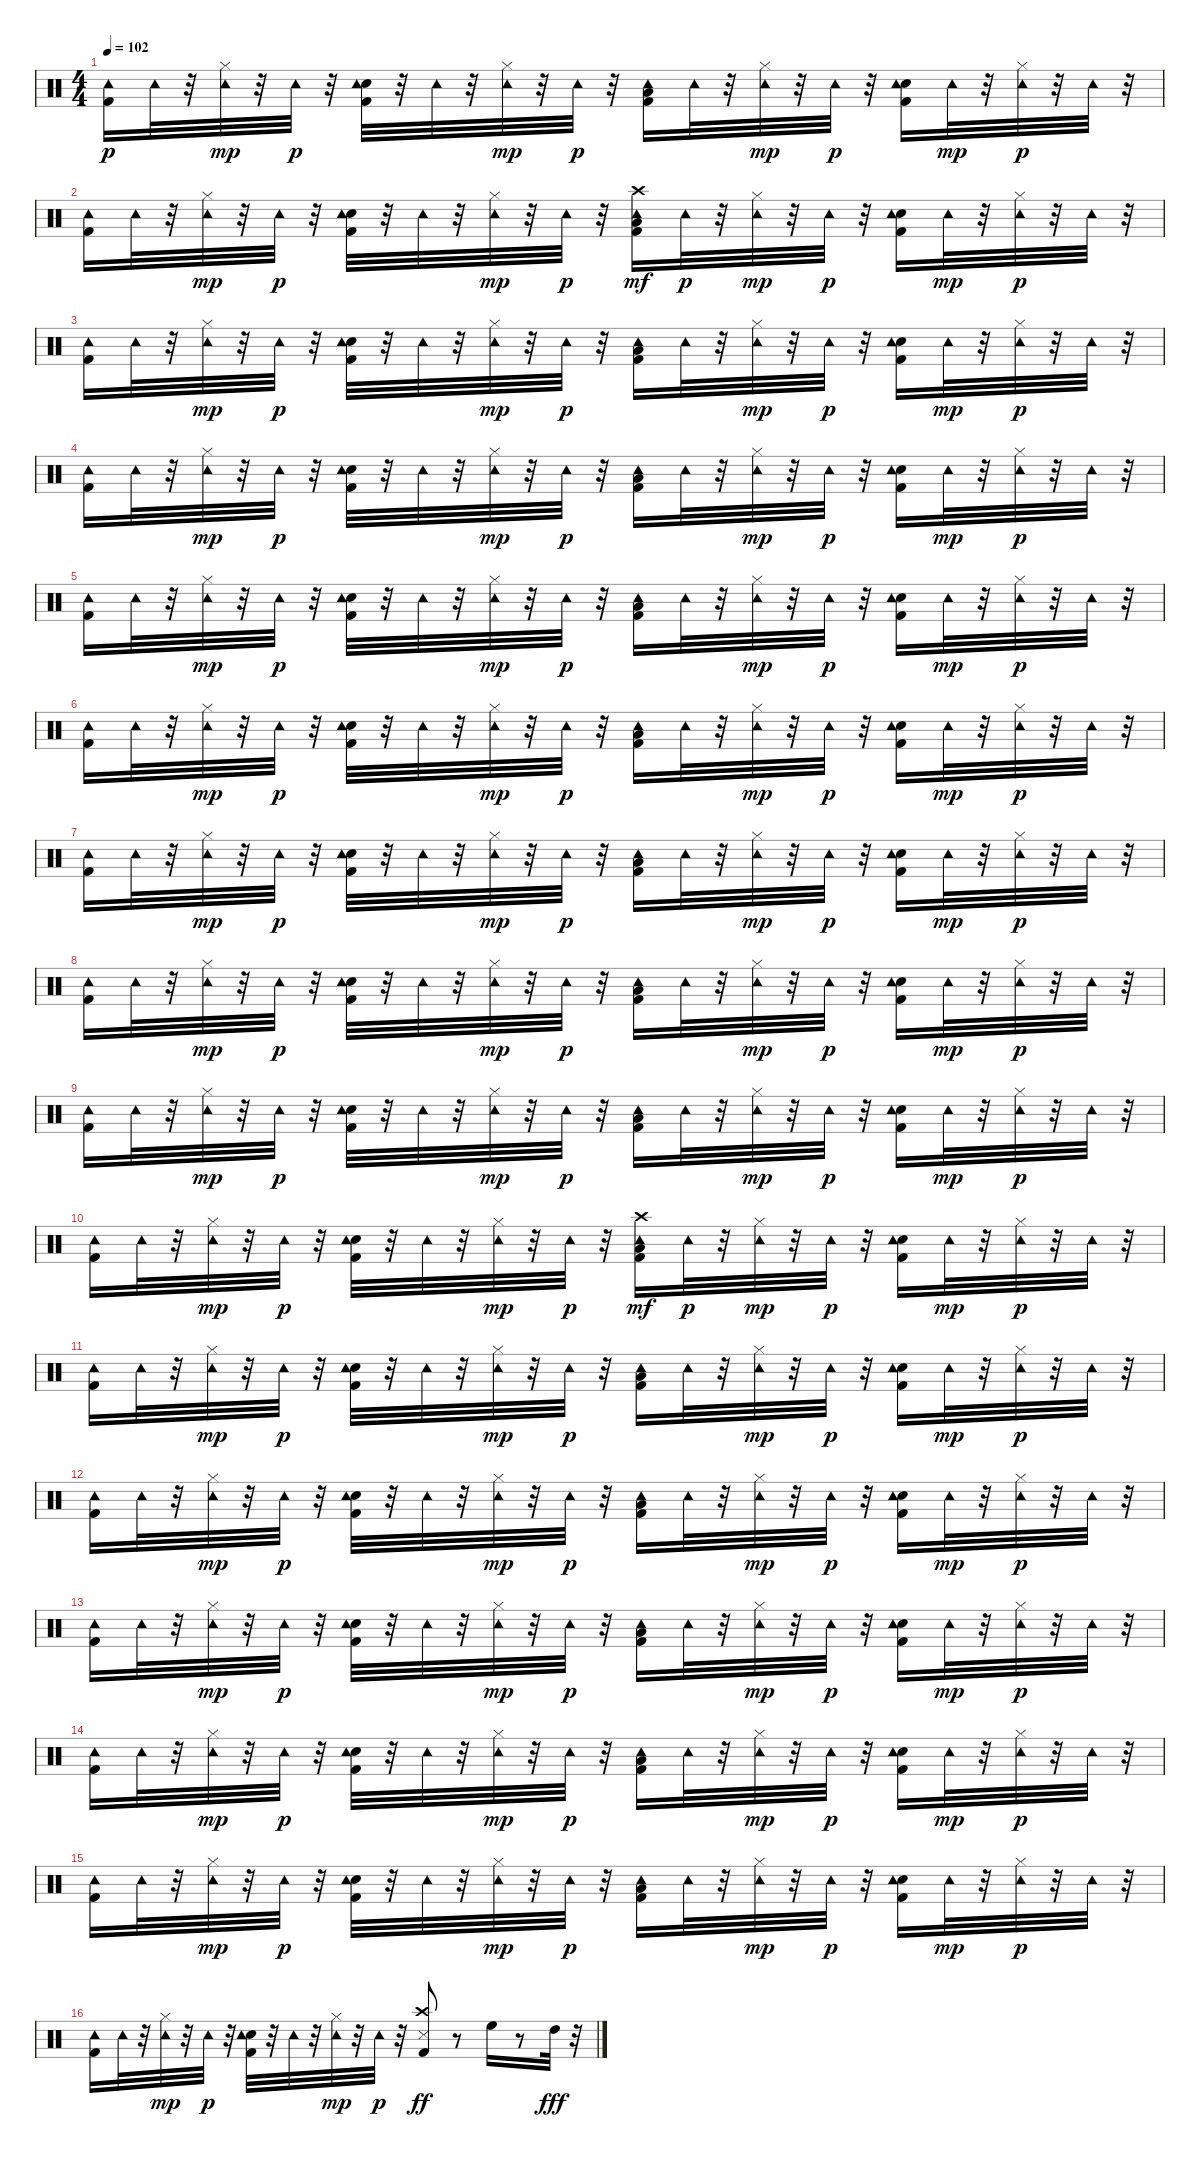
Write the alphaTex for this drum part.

\track "" {instrument percussion}
\staff {score}
\articulation defaults
\ts (4 4)
\tempo 102
\clef neutral
\ks c
("Kick (hit) 2" "Tambourine (hit)").16{dy p} "Tambourine (hit)".32 r.32 ("Tambourine (hit)" "Hi-Hat (closed)").32{dy mp} r.32 "Tambourine (hit)".32{dy p} r.32 ("Kick (hit) 2" "Snare (hit) 2" "Tambourine (hit)").32 r.32 "Tambourine (hit)".32 r.32 ("Tambourine (hit)" "Hi-Hat (closed)").32{dy mp} r.32 "Tambourine (hit)".32{dy p} r.32 ("Low Floor Tom (hit)" "Kick (hit) 2" "Tambourine (hit)").16 "Tambourine (hit)".32 r.32 ("Tambourine (hit)" "Hi-Hat (closed)").32{dy mp} r.32 "Tambourine (hit)".32{dy p} r.32 ("Kick (hit) 2" "Snare (hit) 2" "Tambourine (hit)").16 "Tambourine (hit)".32{dy mp} r.32 ("Tambourine (hit)" "Hi-Hat (closed)").32{dy p} r.32 "Tambourine (hit)".32 r.32 |
("Kick (hit) 2" "Tambourine (hit)").16 "Tambourine (hit)".32 r.32 ("Tambourine (hit)" "Hi-Hat (closed)").32{dy mp} r.32 "Tambourine (hit)".32{dy p} r.32 ("Kick (hit) 2" "Snare (hit) 2" "Tambourine (hit)").32 r.32 "Tambourine (hit)".32 r.32 ("Tambourine (hit)" "Hi-Hat (closed)").32{dy mp} r.32 "Tambourine (hit)".32{dy p} r.32 ("Low Floor Tom (hit)" "Kick (hit) 2" "Tambourine (hit)" "Crash high (hit)").16{dy mf} "Tambourine (hit)".32{dy p} r.32 ("Tambourine (hit)" "Hi-Hat (closed)").32{dy mp} r.32 "Tambourine (hit)".32{dy p} r.32 ("Kick (hit) 2" "Snare (hit) 2" "Tambourine (hit)").16 "Tambourine (hit)".32{dy mp} r.32 ("Tambourine (hit)" "Hi-Hat (closed)").32{dy p} r.32 "Tambourine (hit)".32 r.32 |
("Kick (hit) 2" "Tambourine (hit)").16 "Tambourine (hit)".32 r.32 ("Tambourine (hit)" "Hi-Hat (closed)").32{dy mp} r.32 "Tambourine (hit)".32{dy p} r.32 ("Kick (hit) 2" "Snare (hit) 2" "Tambourine (hit)").32 r.32 "Tambourine (hit)".32 r.32 ("Tambourine (hit)" "Hi-Hat (closed)").32{dy mp} r.32 "Tambourine (hit)".32{dy p} r.32 ("Low Floor Tom (hit)" "Kick (hit) 2" "Tambourine (hit)").16 "Tambourine (hit)".32 r.32 ("Tambourine (hit)" "Hi-Hat (closed)").32{dy mp} r.32 "Tambourine (hit)".32{dy p} r.32 ("Kick (hit) 2" "Snare (hit) 2" "Tambourine (hit)").16 "Tambourine (hit)".32{dy mp} r.32 ("Tambourine (hit)" "Hi-Hat (closed)").32{dy p} r.32 "Tambourine (hit)".32 r.32 |
("Kick (hit) 2" "Tambourine (hit)").16 "Tambourine (hit)".32 r.32 ("Tambourine (hit)" "Hi-Hat (closed)").32{dy mp} r.32 "Tambourine (hit)".32{dy p} r.32 ("Kick (hit) 2" "Snare (hit) 2" "Tambourine (hit)").32 r.32 "Tambourine (hit)".32 r.32 ("Tambourine (hit)" "Hi-Hat (closed)").32{dy mp} r.32 "Tambourine (hit)".32{dy p} r.32 ("Low Floor Tom (hit)" "Kick (hit) 2" "Tambourine (hit)").16 "Tambourine (hit)".32 r.32 ("Tambourine (hit)" "Hi-Hat (closed)").32{dy mp} r.32 "Tambourine (hit)".32{dy p} r.32 ("Kick (hit) 2" "Snare (hit) 2" "Tambourine (hit)").16 "Tambourine (hit)".32{dy mp} r.32 ("Tambourine (hit)" "Hi-Hat (closed)").32{dy p} r.32 "Tambourine (hit)".32 r.32 |
("Kick (hit) 2" "Tambourine (hit)").16 "Tambourine (hit)".32 r.32 ("Tambourine (hit)" "Hi-Hat (closed)").32{dy mp} r.32 "Tambourine (hit)".32{dy p} r.32 ("Kick (hit) 2" "Snare (hit) 2" "Tambourine (hit)").32 r.32 "Tambourine (hit)".32 r.32 ("Tambourine (hit)" "Hi-Hat (closed)").32{dy mp} r.32 "Tambourine (hit)".32{dy p} r.32 ("Low Floor Tom (hit)" "Kick (hit) 2" "Tambourine (hit)").16 "Tambourine (hit)".32 r.32 ("Tambourine (hit)" "Hi-Hat (closed)").32{dy mp} r.32 "Tambourine (hit)".32{dy p} r.32 ("Kick (hit) 2" "Snare (hit) 2" "Tambourine (hit)").16 "Tambourine (hit)".32{dy mp} r.32 ("Tambourine (hit)" "Hi-Hat (closed)").32{dy p} r.32 "Tambourine (hit)".32 r.32 |
("Kick (hit) 2" "Tambourine (hit)").16 "Tambourine (hit)".32 r.32 ("Tambourine (hit)" "Hi-Hat (closed)").32{dy mp} r.32 "Tambourine (hit)".32{dy p} r.32 ("Kick (hit) 2" "Snare (hit) 2" "Tambourine (hit)").32 r.32 "Tambourine (hit)".32 r.32 ("Tambourine (hit)" "Hi-Hat (closed)").32{dy mp} r.32 "Tambourine (hit)".32{dy p} r.32 ("Low Floor Tom (hit)" "Kick (hit) 2" "Tambourine (hit)").16 "Tambourine (hit)".32 r.32 ("Tambourine (hit)" "Hi-Hat (closed)").32{dy mp} r.32 "Tambourine (hit)".32{dy p} r.32 ("Kick (hit) 2" "Snare (hit) 2" "Tambourine (hit)").16 "Tambourine (hit)".32{dy mp} r.32 ("Tambourine (hit)" "Hi-Hat (closed)").32{dy p} r.32 "Tambourine (hit)".32 r.32 |
("Kick (hit) 2" "Tambourine (hit)").16 "Tambourine (hit)".32 r.32 ("Tambourine (hit)" "Hi-Hat (closed)").32{dy mp} r.32 "Tambourine (hit)".32{dy p} r.32 ("Kick (hit) 2" "Snare (hit) 2" "Tambourine (hit)").32 r.32 "Tambourine (hit)".32 r.32 ("Tambourine (hit)" "Hi-Hat (closed)").32{dy mp} r.32 "Tambourine (hit)".32{dy p} r.32 ("Low Floor Tom (hit)" "Kick (hit) 2" "Tambourine (hit)").16 "Tambourine (hit)".32 r.32 ("Tambourine (hit)" "Hi-Hat (closed)").32{dy mp} r.32 "Tambourine (hit)".32{dy p} r.32 ("Kick (hit) 2" "Snare (hit) 2" "Tambourine (hit)").16 "Tambourine (hit)".32{dy mp} r.32 ("Tambourine (hit)" "Hi-Hat (closed)").32{dy p} r.32 "Tambourine (hit)".32 r.32 |
("Kick (hit) 2" "Tambourine (hit)").16 "Tambourine (hit)".32 r.32 ("Tambourine (hit)" "Hi-Hat (closed)").32{dy mp} r.32 "Tambourine (hit)".32{dy p} r.32 ("Kick (hit) 2" "Snare (hit) 2" "Tambourine (hit)").32 r.32 "Tambourine (hit)".32 r.32 ("Tambourine (hit)" "Hi-Hat (closed)").32{dy mp} r.32 "Tambourine (hit)".32{dy p} r.32 ("Low Floor Tom (hit)" "Kick (hit) 2" "Tambourine (hit)").16 "Tambourine (hit)".32 r.32 ("Tambourine (hit)" "Hi-Hat (closed)").32{dy mp} r.32 "Tambourine (hit)".32{dy p} r.32 ("Kick (hit) 2" "Snare (hit) 2" "Tambourine (hit)").16 "Tambourine (hit)".32{dy mp} r.32 ("Tambourine (hit)" "Hi-Hat (closed)").32{dy p} r.32 "Tambourine (hit)".32 r.32 |
("Kick (hit) 2" "Tambourine (hit)").16 "Tambourine (hit)".32 r.32 ("Tambourine (hit)" "Hi-Hat (closed)").32{dy mp} r.32 "Tambourine (hit)".32{dy p} r.32 ("Kick (hit) 2" "Snare (hit) 2" "Tambourine (hit)").32 r.32 "Tambourine (hit)".32 r.32 ("Tambourine (hit)" "Hi-Hat (closed)").32{dy mp} r.32 "Tambourine (hit)".32{dy p} r.32 ("Low Floor Tom (hit)" "Kick (hit) 2" "Tambourine (hit)").16 "Tambourine (hit)".32 r.32 ("Tambourine (hit)" "Hi-Hat (closed)").32{dy mp} r.32 "Tambourine (hit)".32{dy p} r.32 ("Kick (hit) 2" "Snare (hit) 2" "Tambourine (hit)").16 "Tambourine (hit)".32{dy mp} r.32 ("Tambourine (hit)" "Hi-Hat (closed)").32{dy p} r.32 "Tambourine (hit)".32 r.32 |
("Kick (hit) 2" "Tambourine (hit)").16 "Tambourine (hit)".32 r.32 ("Tambourine (hit)" "Hi-Hat (closed)").32{dy mp} r.32 "Tambourine (hit)".32{dy p} r.32 ("Kick (hit) 2" "Snare (hit) 2" "Tambourine (hit)").32 r.32 "Tambourine (hit)".32 r.32 ("Tambourine (hit)" "Hi-Hat (closed)").32{dy mp} r.32 "Tambourine (hit)".32{dy p} r.32 ("Low Floor Tom (hit)" "Kick (hit) 2" "Tambourine (hit)" "Crash high (hit)").16{dy mf} "Tambourine (hit)".32{dy p} r.32 ("Tambourine (hit)" "Hi-Hat (closed)").32{dy mp} r.32 "Tambourine (hit)".32{dy p} r.32 ("Kick (hit) 2" "Snare (hit) 2" "Tambourine (hit)").16 "Tambourine (hit)".32{dy mp} r.32 ("Tambourine (hit)" "Hi-Hat (closed)").32{dy p} r.32 "Tambourine (hit)".32 r.32 |
("Kick (hit) 2" "Tambourine (hit)").16 "Tambourine (hit)".32 r.32 ("Tambourine (hit)" "Hi-Hat (closed)").32{dy mp} r.32 "Tambourine (hit)".32{dy p} r.32 ("Kick (hit) 2" "Snare (hit) 2" "Tambourine (hit)").32 r.32 "Tambourine (hit)".32 r.32 ("Tambourine (hit)" "Hi-Hat (closed)").32{dy mp} r.32 "Tambourine (hit)".32{dy p} r.32 ("Low Floor Tom (hit)" "Kick (hit) 2" "Tambourine (hit)").16 "Tambourine (hit)".32 r.32 ("Tambourine (hit)" "Hi-Hat (closed)").32{dy mp} r.32 "Tambourine (hit)".32{dy p} r.32 ("Kick (hit) 2" "Snare (hit) 2" "Tambourine (hit)").16 "Tambourine (hit)".32{dy mp} r.32 ("Tambourine (hit)" "Hi-Hat (closed)").32{dy p} r.32 "Tambourine (hit)".32 r.32 |
("Kick (hit) 2" "Tambourine (hit)").16 "Tambourine (hit)".32 r.32 ("Tambourine (hit)" "Hi-Hat (closed)").32{dy mp} r.32 "Tambourine (hit)".32{dy p} r.32 ("Kick (hit) 2" "Snare (hit) 2" "Tambourine (hit)").32 r.32 "Tambourine (hit)".32 r.32 ("Tambourine (hit)" "Hi-Hat (closed)").32{dy mp} r.32 "Tambourine (hit)".32{dy p} r.32 ("Low Floor Tom (hit)" "Kick (hit) 2" "Tambourine (hit)").16 "Tambourine (hit)".32 r.32 ("Tambourine (hit)" "Hi-Hat (closed)").32{dy mp} r.32 "Tambourine (hit)".32{dy p} r.32 ("Kick (hit) 2" "Snare (hit) 2" "Tambourine (hit)").16 "Tambourine (hit)".32{dy mp} r.32 ("Tambourine (hit)" "Hi-Hat (closed)").32{dy p} r.32 "Tambourine (hit)".32 r.32 |
("Kick (hit) 2" "Tambourine (hit)").16 "Tambourine (hit)".32 r.32 ("Tambourine (hit)" "Hi-Hat (closed)").32{dy mp} r.32 "Tambourine (hit)".32{dy p} r.32 ("Kick (hit) 2" "Snare (hit) 2" "Tambourine (hit)").32 r.32 "Tambourine (hit)".32 r.32 ("Tambourine (hit)" "Hi-Hat (closed)").32{dy mp} r.32 "Tambourine (hit)".32{dy p} r.32 ("Low Floor Tom (hit)" "Kick (hit) 2" "Tambourine (hit)").16 "Tambourine (hit)".32 r.32 ("Tambourine (hit)" "Hi-Hat (closed)").32{dy mp} r.32 "Tambourine (hit)".32{dy p} r.32 ("Kick (hit) 2" "Snare (hit) 2" "Tambourine (hit)").16 "Tambourine (hit)".32{dy mp} r.32 ("Tambourine (hit)" "Hi-Hat (closed)").32{dy p} r.32 "Tambourine (hit)".32 r.32 |
("Kick (hit) 2" "Tambourine (hit)").16 "Tambourine (hit)".32 r.32 ("Tambourine (hit)" "Hi-Hat (closed)").32{dy mp} r.32 "Tambourine (hit)".32{dy p} r.32 ("Kick (hit) 2" "Snare (hit) 2" "Tambourine (hit)").32 r.32 "Tambourine (hit)".32 r.32 ("Tambourine (hit)" "Hi-Hat (closed)").32{dy mp} r.32 "Tambourine (hit)".32{dy p} r.32 ("Low Floor Tom (hit)" "Kick (hit) 2" "Tambourine (hit)").16 "Tambourine (hit)".32 r.32 ("Tambourine (hit)" "Hi-Hat (closed)").32{dy mp} r.32 "Tambourine (hit)".32{dy p} r.32 ("Kick (hit) 2" "Snare (hit) 2" "Tambourine (hit)").16 "Tambourine (hit)".32{dy mp} r.32 ("Tambourine (hit)" "Hi-Hat (closed)").32{dy p} r.32 "Tambourine (hit)".32 r.32 |
("Kick (hit) 2" "Tambourine (hit)").16 "Tambourine (hit)".32 r.32 ("Tambourine (hit)" "Hi-Hat (closed)").32{dy mp} r.32 "Tambourine (hit)".32{dy p} r.32 ("Kick (hit) 2" "Snare (hit) 2" "Tambourine (hit)").32 r.32 "Tambourine (hit)".32 r.32 ("Tambourine (hit)" "Hi-Hat (closed)").32{dy mp} r.32 "Tambourine (hit)".32{dy p} r.32 ("Low Floor Tom (hit)" "Kick (hit) 2" "Tambourine (hit)").16 "Tambourine (hit)".32 r.32 ("Tambourine (hit)" "Hi-Hat (closed)").32{dy mp} r.32 "Tambourine (hit)".32{dy p} r.32 ("Kick (hit) 2" "Snare (hit) 2" "Tambourine (hit)").16 "Tambourine (hit)".32{dy mp} r.32 ("Tambourine (hit)" "Hi-Hat (closed)").32{dy p} r.32 "Tambourine (hit)".32 r.32 |
("Kick (hit) 2" "Tambourine (hit)").16 "Tambourine (hit)".32 r.32 ("Tambourine (hit)" "Hi-Hat (closed)").32{dy mp} r.32 "Tambourine (hit)".32{dy p} r.32 ("Kick (hit) 2" "Snare (hit) 2" "Tambourine (hit)").32 r.32 "Tambourine (hit)".32 r.32 ("Tambourine (hit)" "Hi-Hat (closed)").32{dy mp} r.32 "Tambourine (hit)".32{dy p} r.32 ("Snare (side stick) 3" "Crash high (hit)" "Kick (hit) 2").8{dy ff} r.8 "High Floor Tom (hit)".16 r.8 "High Tom (hit)".32{dy fff} r.32
